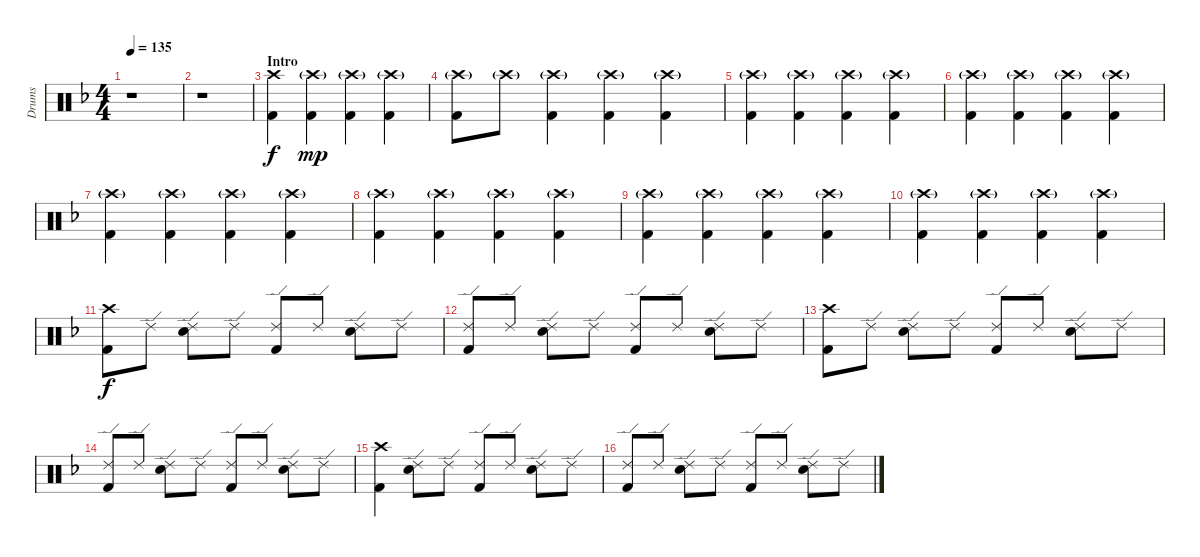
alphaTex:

\track ("Drums" "Drums") {instrument percussion}
\staff {score}
\articulation defaults
\ts (4 4)
\tempo 135
\clef neutral
\ks f
r.1{dy f} |
r.1 |
\section ("" "Intro")
("Crash high (hit)" "Kick (hit) 2").4 ("Crash high (hit)"{g} "Kick (hit) 2").4{dy mp} ("Crash high (hit)"{g} "Kick (hit) 2").4 ("Crash high (hit)"{g} "Kick (hit) 2").4 |
("Crash high (hit)"{g} "Kick (hit) 2").8 "Crash high (hit)"{g}.8 ("Crash high (hit)"{g} "Kick (hit) 2").4 ("Crash high (hit)"{g} "Kick (hit) 2").4 ("Crash high (hit)"{g} "Kick (hit) 2").4 |
("Crash high (hit)"{g} "Kick (hit) 2").4 ("Crash high (hit)"{g} "Kick (hit) 2").4 ("Crash high (hit)"{g} "Kick (hit) 2").4 ("Crash high (hit)"{g} "Kick (hit) 2").4 |
("Crash high (hit)"{g} "Kick (hit) 2").4 ("Crash high (hit)"{g} "Kick (hit) 2").4 ("Crash high (hit)"{g} "Kick (hit) 2").4 ("Crash high (hit)"{g} "Kick (hit) 2").4 |
("Crash high (hit)"{g} "Kick (hit) 2").4 ("Crash high (hit)"{g} "Kick (hit) 2").4 ("Crash high (hit)"{g} "Kick (hit) 2").4 ("Crash high (hit)"{g} "Kick (hit) 2").4 |
("Crash high (hit)"{g} "Kick (hit) 2").4 ("Crash high (hit)"{g} "Kick (hit) 2").4 ("Crash high (hit)"{g} "Kick (hit) 2").4 ("Crash high (hit)"{g} "Kick (hit) 2").4 |
("Crash high (hit)"{g} "Kick (hit) 2").4 ("Crash high (hit)"{g} "Kick (hit) 2").4 ("Crash high (hit)"{g} "Kick (hit) 2").4 ("Crash high (hit)"{g} "Kick (hit) 2").4 |
("Crash high (hit)"{g} "Kick (hit) 2").4 ("Crash high (hit)"{g} "Kick (hit) 2").4 ("Crash high (hit)"{g} "Kick (hit) 2").4 ("Crash high (hit)"{g} "Kick (hit) 2").4 |
("Crash high (hit)" "Kick (hit) 2").8{dy f} "Ride (edge) 2".8 ("Ride (edge) 2" "Electric Snare (hit)").8 "Ride (edge) 2".8 ("Ride (edge) 2" "Kick (hit) 2").8 "Ride (edge) 2".8 ("Ride (edge) 2" "Electric Snare (hit)").8 "Ride (edge) 2".8 |
("Ride (edge) 2" "Kick (hit) 2").8 "Ride (edge) 2".8 ("Ride (edge) 2" "Electric Snare (hit)").8 "Ride (edge) 2".8 ("Ride (edge) 2" "Kick (hit) 2").8 "Ride (edge) 2".8 ("Ride (edge) 2" "Electric Snare (hit)").8 "Ride (edge) 2".8 |
("Crash high (hit)" "Kick (hit) 2").8 "Ride (edge) 2".8 ("Ride (edge) 2" "Electric Snare (hit)").8 "Ride (edge) 2".8 ("Ride (edge) 2" "Kick (hit) 2").8 "Ride (edge) 2".8 ("Ride (edge) 2" "Electric Snare (hit)").8 "Ride (edge) 2".8 |
("Ride (edge) 2" "Kick (hit) 2").8 "Ride (edge) 2".8 ("Ride (edge) 2" "Electric Snare (hit)").8 "Ride (edge) 2".8 ("Ride (edge) 2" "Kick (hit) 2").8 "Ride (edge) 2".8 ("Ride (edge) 2" "Electric Snare (hit)").8 "Ride (edge) 2".8 |
("Crash high (hit)" "Kick (hit) 2").4 ("Ride (edge) 2" "Electric Snare (hit)").8 "Ride (edge) 2".8 ("Ride (edge) 2" "Kick (hit) 2").8 "Ride (edge) 2".8 ("Ride (edge) 2" "Electric Snare (hit)").8 "Ride (edge) 2".8 |
("Ride (edge) 2" "Kick (hit) 2").8 "Ride (edge) 2".8 ("Ride (edge) 2" "Electric Snare (hit)").8 "Ride (edge) 2".8 ("Ride (edge) 2" "Kick (hit) 2").8 "Ride (edge) 2".8 ("Ride (edge) 2" "Electric Snare (hit)").8 "Ride (edge) 2".8
